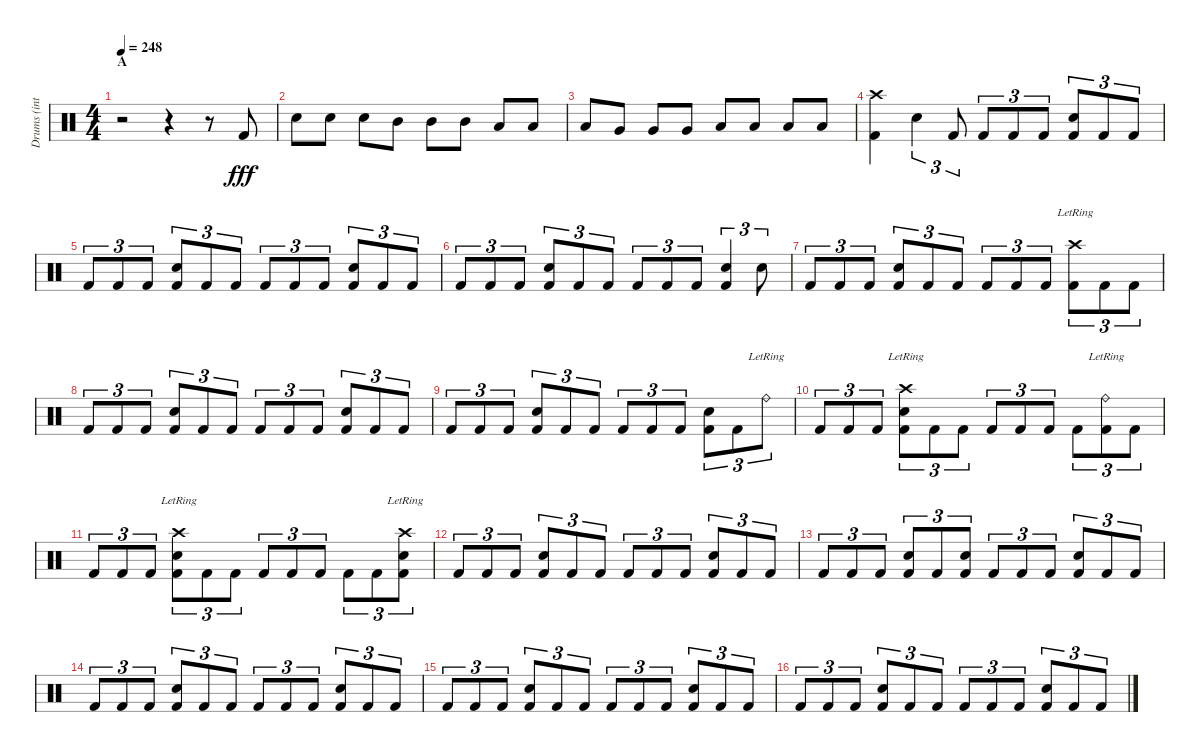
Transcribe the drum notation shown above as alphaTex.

\track ("Drums (intro only)" "Drums (int") {instrument percussion}
\staff {score}
\articulation defaults
\ts (4 4)
\section ("" "A")
\tempo 248
\clef neutral
\ks c
r.2{dy fff} r.4 r.8 "Kick (hit) 2".8 |
"Snare (hit) 2".8 "Snare (hit) 2".8 "Snare (hit) 2".8 "Mid Tom (hit)".8 "Mid Tom (hit)".8 "Mid Tom (hit)".8 "Low Tom (hit)".8 "Low Tom (hit)".8 |
"Low Tom (hit)".8 "Very Low Tom (hit)".8 "Very Low Tom (hit)".8 "Very Low Tom (hit)".8 "Low Floor Tom (hit)".8 "Low Floor Tom (hit)".8 "Low Floor Tom (hit)".8 "Low Floor Tom (hit)".8 |
("Crash high (hit)" "Kick (hit) 2").4 "Snare (hit) 2".4{tu (3 2)} "Kick (hit) 2".8{tu (3 2)} "Kick (hit) 2".8{tu (3 2)} "Kick (hit) 2".8{tu (3 2)} "Kick (hit) 2".8{tu (3 2)} ("Snare (hit) 2" "Kick (hit) 2").8{tu (3 2)} "Kick (hit) 2".8{tu (3 2)} "Kick (hit) 2".8{tu (3 2)} |
"Kick (hit) 2".8{tu (3 2)} "Kick (hit) 2".8{tu (3 2)} "Kick (hit) 2".8{tu (3 2)} ("Snare (hit) 2" "Kick (hit) 2").8{tu (3 2)} "Kick (hit) 2".8{tu (3 2)} "Kick (hit) 2".8{tu (3 2)} "Kick (hit) 2".8{tu (3 2)} "Kick (hit) 2".8{tu (3 2)} "Kick (hit) 2".8{tu (3 2)} ("Snare (hit) 2" "Kick (hit) 2").8{tu (3 2)} "Kick (hit) 2".8{tu (3 2)} "Kick (hit) 2".8{tu (3 2)} |
"Kick (hit) 2".8{tu (3 2)} "Kick (hit) 2".8{tu (3 2)} "Kick (hit) 2".8{tu (3 2)} ("Snare (hit) 2" "Kick (hit) 2").8{tu (3 2)} "Kick (hit) 2".8{tu (3 2)} "Kick (hit) 2".8{tu (3 2)} "Kick (hit) 2".8{tu (3 2)} "Kick (hit) 2".8{tu (3 2)} "Kick (hit) 2".8{tu (3 2)} ("Snare (hit) 2" "Kick (hit) 2").4{tu (3 2)} "Snare (hit) 2".8{tu (3 2)} |
"Kick (hit) 2".8{tu (3 2)} "Kick (hit) 2".8{tu (3 2)} "Kick (hit) 2".8{tu (3 2)} ("Snare (hit) 2" "Kick (hit) 2").8{tu (3 2)} "Kick (hit) 2".8{tu (3 2)} "Kick (hit) 2".8{tu (3 2)} "Kick (hit) 2".8{tu (3 2)} "Kick (hit) 2".8{tu (3 2)} "Kick (hit) 2".8{tu (3 2)} ("Crash high (hit)"{lr} "Kick (hit) 2").8{tu (3 2)} "Kick (hit) 2".8{tu (3 2)} "Kick (hit) 2".8{tu (3 2)} |
"Kick (hit) 2".8{tu (3 2)} "Kick (hit) 2".8{tu (3 2)} "Kick (hit) 2".8{tu (3 2)} ("Snare (hit) 2" "Kick (hit) 2").8{tu (3 2)} "Kick (hit) 2".8{tu (3 2)} "Kick (hit) 2".8{tu (3 2)} "Kick (hit) 2".8{tu (3 2)} "Kick (hit) 2".8{tu (3 2)} "Kick (hit) 2".8{tu (3 2)} ("Snare (hit) 2" "Kick (hit) 2").8{tu (3 2)} "Kick (hit) 2".8{tu (3 2)} "Kick (hit) 2".8{tu (3 2)} |
"Kick (hit) 2".8{tu (3 2)} "Kick (hit) 2".8{tu (3 2)} "Kick (hit) 2".8{tu (3 2)} ("Snare (hit) 2" "Kick (hit) 2").8{tu (3 2)} "Kick (hit) 2".8{tu (3 2)} "Kick (hit) 2".8{tu (3 2)} "Kick (hit) 2".8{tu (3 2)} "Kick (hit) 2".8{tu (3 2)} "Kick (hit) 2".8{tu (3 2)} ("Snare (hit) 2" "Kick (hit) 2").8{tu (3 2)} "Kick (hit) 2".8{tu (3 2)} "Ride (bell)"{lr}.8{tu (3 2)} |
"Kick (hit) 2".8{tu (3 2)} "Kick (hit) 2".8{tu (3 2)} "Kick (hit) 2".8{tu (3 2)} ("Crash high (hit)"{lr} "Snare (hit) 2" "Kick (hit) 2").8{tu (3 2)} "Kick (hit) 2".8{tu (3 2)} "Kick (hit) 2".8{tu (3 2)} "Kick (hit) 2".8{tu (3 2)} "Kick (hit) 2".8{tu (3 2)} "Kick (hit) 2".8{tu (3 2)} "Kick (hit) 2".8{tu (3 2)} ("Ride (bell)"{lr} "Kick (hit) 2").8{tu (3 2)} "Kick (hit) 2".8{tu (3 2)} |
"Kick (hit) 2".8{tu (3 2)} "Kick (hit) 2".8{tu (3 2)} "Kick (hit) 2".8{tu (3 2)} ("Crash high (hit)"{lr} "Snare (hit) 2" "Kick (hit) 2").8{tu (3 2)} "Kick (hit) 2".8{tu (3 2)} "Kick (hit) 2".8{tu (3 2)} "Kick (hit) 2".8{tu (3 2)} "Kick (hit) 2".8{tu (3 2)} "Kick (hit) 2".8{tu (3 2)} "Kick (hit) 2".8{tu (3 2)} "Kick (hit) 2".8{tu (3 2)} ("Crash high (hit)"{lr} "Snare (hit) 2" "Kick (hit) 2").8{tu (3 2)} |
"Kick (hit) 2".8{tu (3 2)} "Kick (hit) 2".8{tu (3 2)} "Kick (hit) 2".8{tu (3 2)} ("Snare (hit) 2" "Kick (hit) 2").8{tu (3 2)} "Kick (hit) 2".8{tu (3 2)} "Kick (hit) 2".8{tu (3 2)} "Kick (hit) 2".8{tu (3 2)} "Kick (hit) 2".8{tu (3 2)} "Kick (hit) 2".8{tu (3 2)} ("Snare (hit) 2" "Kick (hit) 2").8{tu (3 2)} "Kick (hit) 2".8{tu (3 2)} "Kick (hit) 2".8{tu (3 2)} |
"Kick (hit) 2".8{tu (3 2)} "Kick (hit) 2".8{tu (3 2)} "Kick (hit) 2".8{tu (3 2)} ("Snare (hit) 2" "Kick (hit) 2").8{tu (3 2)} "Kick (hit) 2".8{tu (3 2)} ("Snare (hit) 2" "Kick (hit) 2").8{tu (3 2)} "Kick (hit) 2".8{tu (3 2)} "Kick (hit) 2".8{tu (3 2)} "Kick (hit) 2".8{tu (3 2)} ("Snare (hit) 2" "Kick (hit) 2").8{tu (3 2)} "Kick (hit) 2".8{tu (3 2)} "Kick (hit) 2".8{tu (3 2)} |
"Kick (hit) 2".8{tu (3 2)} "Kick (hit) 2".8{tu (3 2)} "Kick (hit) 2".8{tu (3 2)} ("Snare (hit) 2" "Kick (hit) 2").8{tu (3 2)} "Kick (hit) 2".8{tu (3 2)} "Kick (hit) 2".8{tu (3 2)} "Kick (hit) 2".8{tu (3 2)} "Kick (hit) 2".8{tu (3 2)} "Kick (hit) 2".8{tu (3 2)} ("Snare (hit) 2" "Kick (hit) 2").8{tu (3 2)} "Kick (hit) 2".8{tu (3 2)} "Kick (hit) 2".8{tu (3 2)} |
"Kick (hit) 2".8{tu (3 2)} "Kick (hit) 2".8{tu (3 2)} "Kick (hit) 2".8{tu (3 2)} ("Snare (hit) 2" "Kick (hit) 2").8{tu (3 2)} "Kick (hit) 2".8{tu (3 2)} "Kick (hit) 2".8{tu (3 2)} "Kick (hit) 2".8{tu (3 2)} "Kick (hit) 2".8{tu (3 2)} "Kick (hit) 2".8{tu (3 2)} ("Snare (hit) 2" "Kick (hit) 2").8{tu (3 2)} "Kick (hit) 2".8{tu (3 2)} "Kick (hit) 2".8{tu (3 2)} |
"Kick (hit) 2".8{tu (3 2)} "Kick (hit) 2".8{tu (3 2)} "Kick (hit) 2".8{tu (3 2)} ("Snare (hit) 2" "Kick (hit) 2").8{tu (3 2)} "Kick (hit) 2".8{tu (3 2)} "Kick (hit) 2".8{tu (3 2)} "Kick (hit) 2".8{tu (3 2)} "Kick (hit) 2".8{tu (3 2)} "Kick (hit) 2".8{tu (3 2)} ("Snare (hit) 2" "Kick (hit) 2").8{tu (3 2)} "Kick (hit) 2".8{tu (3 2)} "Kick (hit) 2".8{tu (3 2)}
